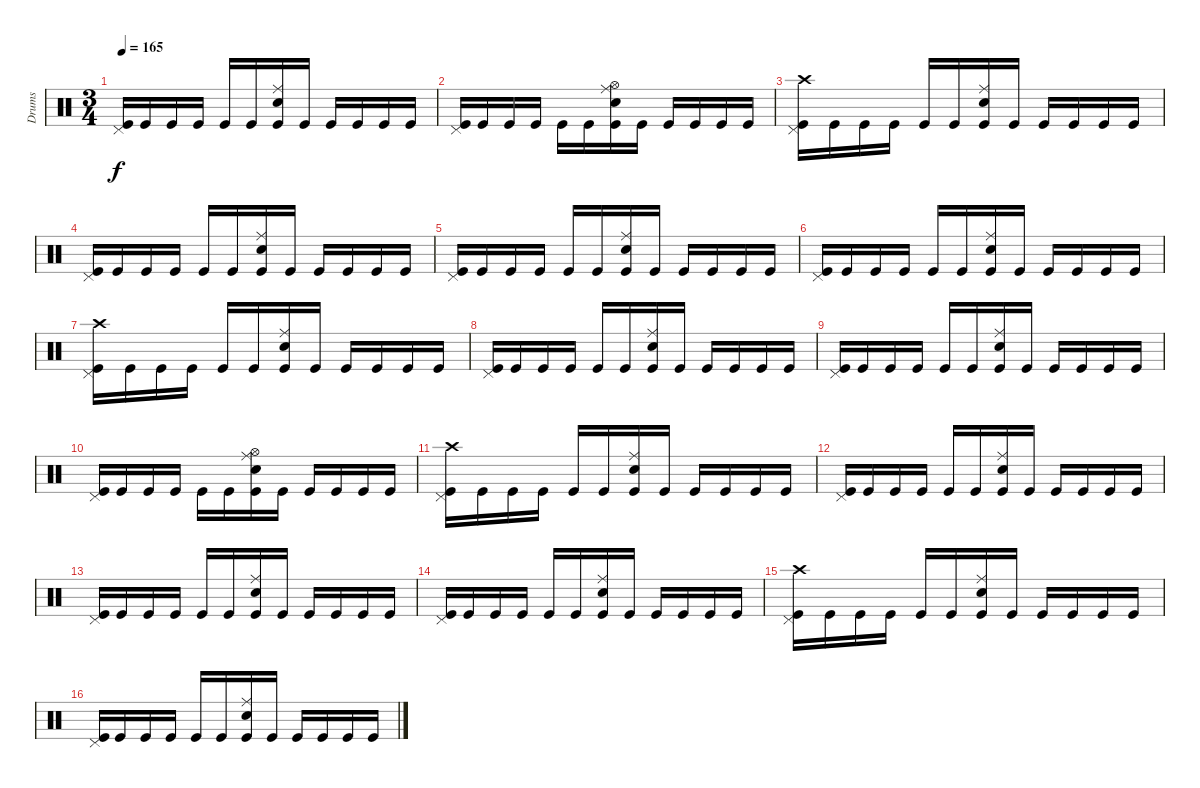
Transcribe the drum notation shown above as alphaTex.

\track ("Drums" "Drums") {instrument percussion}
\staff {score}
\articulation defaults
\ts (3 4)
\tempo 165
\clef neutral
\ks c
("Pedal Hi-Hat (hit)" "Kick (hit)").16{dy f} "Kick (hit)".16 "Kick (hit)".16 "Kick (hit)".16 "Kick (hit)".16 "Kick (hit)".16 ("Ride (middle)" "Snare (hit) 2" "Kick (hit)").16 "Kick (hit)".16 "Kick (hit)".16 "Kick (hit)".16 "Kick (hit)".16 "Kick (hit)".16 |
("Pedal Hi-Hat (hit)" "Kick (hit)").16 "Kick (hit)".16 "Kick (hit)".16 "Kick (hit)".16 "Kick (hit)".16 "Kick (hit)".16 ("Hi-Hat (open)" "Ride (middle)" "Snare (hit) 2" "Kick (hit)").16 "Kick (hit)".16 "Kick (hit)".16 "Kick (hit)".16 "Kick (hit)".16 "Kick (hit)".16 |
("Crash high (hit)" "Pedal Hi-Hat (hit)" "Kick (hit)").16 "Kick (hit)".16 "Kick (hit)".16 "Kick (hit)".16 "Kick (hit)".16 "Kick (hit)".16 ("Ride (middle)" "Snare (hit) 2" "Kick (hit)").16 "Kick (hit)".16 "Kick (hit)".16 "Kick (hit)".16 "Kick (hit)".16 "Kick (hit)".16 |
("Pedal Hi-Hat (hit)" "Kick (hit)").16 "Kick (hit)".16 "Kick (hit)".16 "Kick (hit)".16 "Kick (hit)".16 "Kick (hit)".16 ("Ride (middle)" "Snare (hit) 2" "Kick (hit)").16 "Kick (hit)".16 "Kick (hit)".16 "Kick (hit)".16 "Kick (hit)".16 "Kick (hit)".16 |
("Pedal Hi-Hat (hit)" "Kick (hit)").16 "Kick (hit)".16 "Kick (hit)".16 "Kick (hit)".16 "Kick (hit)".16 "Kick (hit)".16 ("Ride (middle)" "Snare (hit) 2" "Kick (hit)").16 "Kick (hit)".16 "Kick (hit)".16 "Kick (hit)".16 "Kick (hit)".16 "Kick (hit)".16 |
("Pedal Hi-Hat (hit)" "Kick (hit)").16 "Kick (hit)".16 "Kick (hit)".16 "Kick (hit)".16 "Kick (hit)".16 "Kick (hit)".16 ("Ride (middle)" "Snare (hit) 2" "Kick (hit)").16 "Kick (hit)".16 "Kick (hit)".16 "Kick (hit)".16 "Kick (hit)".16 "Kick (hit)".16 |
("Crash high (hit)" "Pedal Hi-Hat (hit)" "Kick (hit)").16 "Kick (hit)".16 "Kick (hit)".16 "Kick (hit)".16 "Kick (hit)".16 "Kick (hit)".16 ("Ride (middle)" "Snare (hit) 2" "Kick (hit)").16 "Kick (hit)".16 "Kick (hit)".16 "Kick (hit)".16 "Kick (hit)".16 "Kick (hit)".16 |
("Pedal Hi-Hat (hit)" "Kick (hit)").16 "Kick (hit)".16 "Kick (hit)".16 "Kick (hit)".16 "Kick (hit)".16 "Kick (hit)".16 ("Ride (middle)" "Snare (hit) 2" "Kick (hit)").16 "Kick (hit)".16 "Kick (hit)".16 "Kick (hit)".16 "Kick (hit)".16 "Kick (hit)".16 |
("Pedal Hi-Hat (hit)" "Kick (hit)").16 "Kick (hit)".16 "Kick (hit)".16 "Kick (hit)".16 "Kick (hit)".16 "Kick (hit)".16 ("Ride (middle)" "Snare (hit) 2" "Kick (hit)").16 "Kick (hit)".16 "Kick (hit)".16 "Kick (hit)".16 "Kick (hit)".16 "Kick (hit)".16 |
("Pedal Hi-Hat (hit)" "Kick (hit)").16 "Kick (hit)".16 "Kick (hit)".16 "Kick (hit)".16 "Kick (hit)".16 "Kick (hit)".16 ("Hi-Hat (open)" "Ride (middle)" "Snare (hit) 2" "Kick (hit)").16 "Kick (hit)".16 "Kick (hit)".16 "Kick (hit)".16 "Kick (hit)".16 "Kick (hit)".16 |
("Crash high (hit)" "Pedal Hi-Hat (hit)" "Kick (hit)").16 "Kick (hit)".16 "Kick (hit)".16 "Kick (hit)".16 "Kick (hit)".16 "Kick (hit)".16 ("Ride (middle)" "Snare (hit) 2" "Kick (hit)").16 "Kick (hit)".16 "Kick (hit)".16 "Kick (hit)".16 "Kick (hit)".16 "Kick (hit)".16 |
("Pedal Hi-Hat (hit)" "Kick (hit)").16 "Kick (hit)".16 "Kick (hit)".16 "Kick (hit)".16 "Kick (hit)".16 "Kick (hit)".16 ("Ride (middle)" "Snare (hit) 2" "Kick (hit)").16 "Kick (hit)".16 "Kick (hit)".16 "Kick (hit)".16 "Kick (hit)".16 "Kick (hit)".16 |
("Pedal Hi-Hat (hit)" "Kick (hit)").16 "Kick (hit)".16 "Kick (hit)".16 "Kick (hit)".16 "Kick (hit)".16 "Kick (hit)".16 ("Ride (middle)" "Snare (hit) 2" "Kick (hit)").16 "Kick (hit)".16 "Kick (hit)".16 "Kick (hit)".16 "Kick (hit)".16 "Kick (hit)".16 |
("Pedal Hi-Hat (hit)" "Kick (hit)").16 "Kick (hit)".16 "Kick (hit)".16 "Kick (hit)".16 "Kick (hit)".16 "Kick (hit)".16 ("Ride (middle)" "Snare (hit) 2" "Kick (hit)").16 "Kick (hit)".16 "Kick (hit)".16 "Kick (hit)".16 "Kick (hit)".16 "Kick (hit)".16 |
("Crash high (hit)" "Pedal Hi-Hat (hit)" "Kick (hit)").16 "Kick (hit)".16 "Kick (hit)".16 "Kick (hit)".16 "Kick (hit)".16 "Kick (hit)".16 ("Ride (middle)" "Snare (hit) 2" "Kick (hit)").16 "Kick (hit)".16 "Kick (hit)".16 "Kick (hit)".16 "Kick (hit)".16 "Kick (hit)".16 |
("Pedal Hi-Hat (hit)" "Kick (hit)").16 "Kick (hit)".16 "Kick (hit)".16 "Kick (hit)".16 "Kick (hit)".16 "Kick (hit)".16 ("Ride (middle)" "Snare (hit) 2" "Kick (hit)").16 "Kick (hit)".16 "Kick (hit)".16 "Kick (hit)".16 "Kick (hit)".16 "Kick (hit)".16
